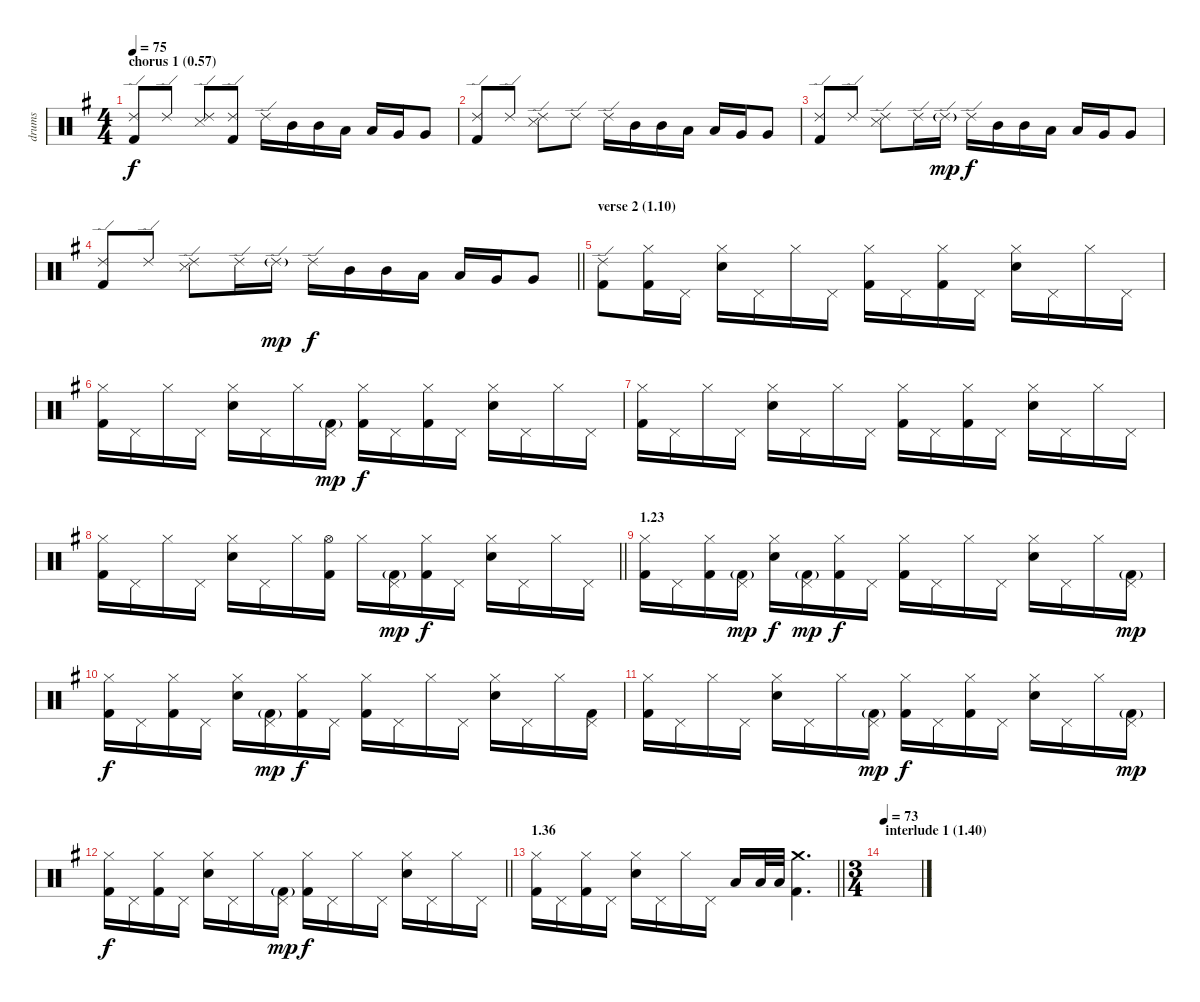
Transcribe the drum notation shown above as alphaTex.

\track ("drums" "drums") {instrument percussion}
\staff {score}
\articulation defaults
\ts (4 4)
\section ("" "chorus 1 (0.57)")
\tempo 75
\clef neutral
\ks g
("Ride (edge) 2" "Kick (hit) 2").8{dy f} "Ride (edge) 2".8 ("Ride (edge) 2" "Snare (side stick) 3").8 ("Ride (edge) 2" "Kick (hit) 2").8 "Ride (edge) 2".16 "Mid Tom (hit)".16 "Mid Tom (hit)".16 "Low Tom (hit)".16 "Low Tom (hit)".16 "Very Low Tom (hit)".16 "Very Low Tom (hit)".8 |
("Ride (edge) 2" "Kick (hit) 2").8 "Ride (edge) 2".8 ("Ride (edge) 2" "Snare (side stick) 3").8 "Ride (edge) 2".8 "Ride (edge) 2".16 "Mid Tom (hit)".16 "Mid Tom (hit)".16 "Low Tom (hit)".16 "Low Tom (hit)".16 "Very Low Tom (hit)".16 "Very Low Tom (hit)".8 |
("Ride (edge) 2" "Kick (hit) 2").8 "Ride (edge) 2".8 ("Ride (edge) 2" "Snare (side stick) 3").8 "Ride (edge) 2".16 "Ride (edge) 2"{g}.16{dy mp} "Ride (edge) 2".16{dy f} "Mid Tom (hit)".16 "Mid Tom (hit)".16 "Low Tom (hit)".16 "Low Tom (hit)".16 "Very Low Tom (hit)".16 "Very Low Tom (hit)".8 |
\barLineRight lightlight
("Ride (edge) 2" "Kick (hit) 2").8 "Ride (edge) 2".8 ("Ride (edge) 2" "Snare (side stick) 3").8 "Ride (edge) 2".16 "Ride (edge) 2"{g}.16{dy mp} "Ride (edge) 2".16{dy f} "Mid Tom (hit)".16 "Mid Tom (hit)".16 "Low Tom (hit)".16 "Low Tom (hit)".16 "Very Low Tom (hit)".16 "Very Low Tom (hit)".8 |
\section ("" "verse 2 (1.10)")
("Ride (edge) 2" "Kick (hit) 2").8 ("Hi-Hat (closed)" "Kick (hit) 2").16 "Pedal Hi-Hat (hit)".16 ("Hi-Hat (closed)" "Electric Snare (hit)").16 "Pedal Hi-Hat (hit)".16 "Hi-Hat (closed)".16 "Pedal Hi-Hat (hit)".16 ("Hi-Hat (closed)" "Kick (hit) 2").16 "Pedal Hi-Hat (hit)".16 ("Hi-Hat (closed)" "Kick (hit) 2").16 "Pedal Hi-Hat (hit)".16 ("Hi-Hat (closed)" "Electric Snare (hit)").16 "Pedal Hi-Hat (hit)".16 "Hi-Hat (closed)".16 "Pedal Hi-Hat (hit)".16 |
("Hi-Hat (closed)" "Kick (hit) 2").16 "Pedal Hi-Hat (hit)".16 "Hi-Hat (closed)".16 "Pedal Hi-Hat (hit)".16 ("Hi-Hat (closed)" "Electric Snare (hit)").16 "Pedal Hi-Hat (hit)".16 "Hi-Hat (closed)".16 ("Pedal Hi-Hat (hit)" "Kick (hit) 2"{g}).16{dy mp} ("Hi-Hat (closed)" "Kick (hit) 2").16{dy f} "Pedal Hi-Hat (hit)".16 ("Hi-Hat (closed)" "Kick (hit) 2").16 "Pedal Hi-Hat (hit)".16 ("Hi-Hat (closed)" "Electric Snare (hit)").16 "Pedal Hi-Hat (hit)".16 "Hi-Hat (closed)".16 "Pedal Hi-Hat (hit)".16 |
("Hi-Hat (closed)" "Kick (hit) 2").16 "Pedal Hi-Hat (hit)".16 "Hi-Hat (closed)".16 "Pedal Hi-Hat (hit)".16 ("Hi-Hat (closed)" "Electric Snare (hit)").16 "Pedal Hi-Hat (hit)".16 "Hi-Hat (closed)".16 "Pedal Hi-Hat (hit)".16 ("Hi-Hat (closed)" "Kick (hit) 2").16 "Pedal Hi-Hat (hit)".16 ("Hi-Hat (closed)" "Kick (hit) 2").16 "Pedal Hi-Hat (hit)".16 ("Hi-Hat (closed)" "Electric Snare (hit)").16 "Pedal Hi-Hat (hit)".16 "Hi-Hat (closed)".16 "Pedal Hi-Hat (hit)".16 |
\barLineRight lightlight
("Hi-Hat (closed)" "Kick (hit) 2").16 "Pedal Hi-Hat (hit)".16 "Hi-Hat (closed)".16 "Pedal Hi-Hat (hit)".16 ("Hi-Hat (closed)" "Electric Snare (hit)").16 "Pedal Hi-Hat (hit)".16 "Hi-Hat (closed)".16 ("Hi-Hat (open)" "Kick (hit) 2").16 "Hi-Hat (closed)".16 ("Pedal Hi-Hat (hit)" "Kick (hit) 2"{g}).16{dy mp} ("Hi-Hat (closed)" "Kick (hit) 2").16{dy f} "Pedal Hi-Hat (hit)".16 ("Hi-Hat (closed)" "Electric Snare (hit)").16 "Pedal Hi-Hat (hit)".16 "Hi-Hat (closed)".16 "Pedal Hi-Hat (hit)".16 |
\section ("" "1.23")
("Hi-Hat (closed)" "Kick (hit) 2").16 "Pedal Hi-Hat (hit)".16 ("Hi-Hat (closed)" "Kick (hit) 2").16 ("Pedal Hi-Hat (hit)" "Kick (hit) 2"{g}).16{dy mp} ("Hi-Hat (closed)" "Electric Snare (hit)").16{dy f} ("Pedal Hi-Hat (hit)" "Kick (hit) 2"{g}).16{dy mp} ("Hi-Hat (closed)" "Kick (hit) 2").16{dy f} "Pedal Hi-Hat (hit)".16 ("Hi-Hat (closed)" "Kick (hit) 2").16 "Pedal Hi-Hat (hit)".16 "Hi-Hat (closed)".16 "Pedal Hi-Hat (hit)".16 ("Hi-Hat (closed)" "Electric Snare (hit)").16 "Pedal Hi-Hat (hit)".16 "Hi-Hat (closed)".16 ("Pedal Hi-Hat (hit)" "Kick (hit) 2"{g}).16{dy mp} |
("Hi-Hat (closed)" "Kick (hit) 2").16{dy f} "Pedal Hi-Hat (hit)".16 ("Hi-Hat (closed)" "Kick (hit) 2").16 "Pedal Hi-Hat (hit)".16 ("Hi-Hat (closed)" "Electric Snare (hit)").16 ("Pedal Hi-Hat (hit)" "Kick (hit) 2"{g}).16{dy mp} ("Hi-Hat (closed)" "Kick (hit) 2").16{dy f} "Pedal Hi-Hat (hit)".16 ("Hi-Hat (closed)" "Kick (hit) 2").16 "Pedal Hi-Hat (hit)".16 "Hi-Hat (closed)".16 "Pedal Hi-Hat (hit)".16 ("Hi-Hat (closed)" "Electric Snare (hit)").16 "Pedal Hi-Hat (hit)".16 "Hi-Hat (closed)".16 ("Pedal Hi-Hat (hit)" "Kick (hit) 2").16 |
("Hi-Hat (closed)" "Kick (hit) 2").16 "Pedal Hi-Hat (hit)".16 "Hi-Hat (closed)".16 "Pedal Hi-Hat (hit)".16 ("Hi-Hat (closed)" "Electric Snare (hit)").16 "Pedal Hi-Hat (hit)".16 "Hi-Hat (closed)".16 ("Pedal Hi-Hat (hit)" "Kick (hit) 2"{g}).16{dy mp} ("Hi-Hat (closed)" "Kick (hit) 2").16{dy f} "Pedal Hi-Hat (hit)".16 ("Hi-Hat (closed)" "Kick (hit) 2").16 "Pedal Hi-Hat (hit)".16 ("Hi-Hat (closed)" "Electric Snare (hit)").16 "Pedal Hi-Hat (hit)".16 "Hi-Hat (closed)".16 ("Pedal Hi-Hat (hit)" "Kick (hit) 2"{g}).16{dy mp} |
\barLineRight lightlight
("Hi-Hat (closed)" "Kick (hit) 2").16{dy f} "Pedal Hi-Hat (hit)".16 ("Hi-Hat (closed)" "Kick (hit) 2").16 "Pedal Hi-Hat (hit)".16 ("Hi-Hat (closed)" "Electric Snare (hit)").16 "Pedal Hi-Hat (hit)".16 "Hi-Hat (closed)".16 ("Pedal Hi-Hat (hit)" "Kick (hit) 2"{g}).16{dy mp} ("Hi-Hat (closed)" "Kick (hit) 2").16{dy f} "Pedal Hi-Hat (hit)".16 "Hi-Hat (closed)".16 "Pedal Hi-Hat (hit)".16 ("Hi-Hat (closed)" "Electric Snare (hit)").16 "Pedal Hi-Hat (hit)".16 "Hi-Hat (closed)".16 "Pedal Hi-Hat (hit)".16 |
\section ("" "1.36")
\barLineRight lightlight
("Hi-Hat (closed)" "Kick (hit) 2").16 "Pedal Hi-Hat (hit)".16 ("Hi-Hat (closed)" "Kick (hit) 2").16 "Pedal Hi-Hat (hit)".16 ("Hi-Hat (closed)" "Electric Snare (hit)").16 "Pedal Hi-Hat (hit)".16 "Hi-Hat (closed)".16 "Pedal Hi-Hat (hit)".16 "Low Tom (hit)".16 "Low Tom (hit)".32 "Low Tom (hit)".32 ("Crash medium (hit)" "Kick (hit) 2").4{d} |
\ts (3 4)
\section ("" "interlude 1 (1.40)")
\tempo 73
